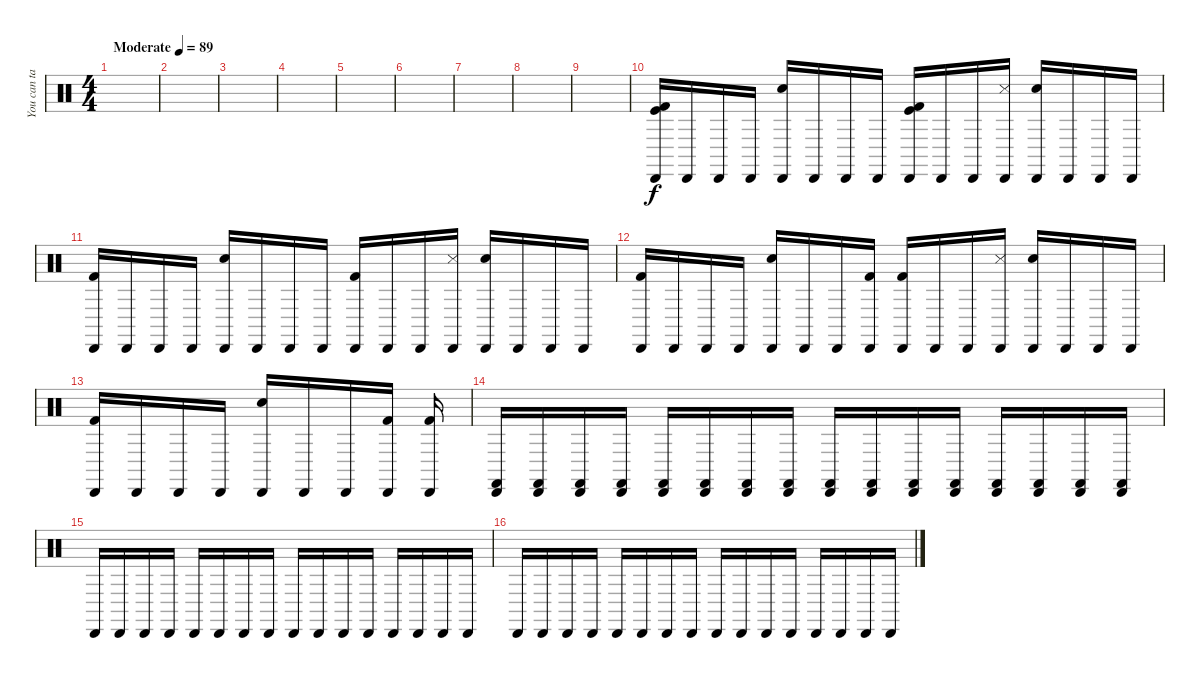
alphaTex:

\track ("You can take this file" "You can ta") {solo instrument percussion}
\staff {score}
\articulation defaults
\ts (4 4)
\tempo (89 "Moderate")
\clef neutral
\ks c
|
|
|
|
|
|
|
|
|
("Kick (hit) 2" "Kick (hit)" "Cabasa (hit)").16 "Cabasa (hit)".16 "Cabasa (hit)".16 "Cabasa (hit)".16 ("Hand Clap (hit)" "Cabasa (hit)").16 "Cabasa (hit)".16 "Cabasa (hit)".16 "Cabasa (hit)".16 ("Kick (hit) 2" "Kick (hit)" "Cabasa (hit)").16 "Cabasa (hit)".16 "Cabasa (hit)".16 ("Snare (side stick) 3" "Cabasa (hit)").16 ("Hand Clap (hit)" "Cabasa (hit)").16 "Cabasa (hit)".16 "Cabasa (hit)".16 "Cabasa (hit)".16 |
("Kick (hit) 2" "Cabasa (hit)").16 "Cabasa (hit)".16 "Cabasa (hit)".16 "Cabasa (hit)".16 ("Hand Clap (hit)" "Cabasa (hit)").16 "Cabasa (hit)".16 "Cabasa (hit)".16 "Cabasa (hit)".16 ("Kick (hit) 2" "Cabasa (hit)").16 "Cabasa (hit)".16 "Cabasa (hit)".16 ("Snare (side stick) 3" "Cabasa (hit)").16 ("Hand Clap (hit)" "Cabasa (hit)").16 "Cabasa (hit)".16 "Cabasa (hit)".16 "Cabasa (hit)".16 |
("Kick (hit) 2" "Cabasa (hit)").16 "Cabasa (hit)".16 "Cabasa (hit)".16 "Cabasa (hit)".16 ("Hand Clap (hit)" "Cabasa (hit)").16 "Cabasa (hit)".16 "Cabasa (hit)".16 ("Kick (hit) 2" "Cabasa (hit)").16 ("Kick (hit) 2" "Cabasa (hit)").16 "Cabasa (hit)".16 "Cabasa (hit)".16 ("Snare (side stick) 3" "Cabasa (hit)").16 ("Hand Clap (hit)" "Cabasa (hit)").16 "Cabasa (hit)".16 "Cabasa (hit)".16 "Cabasa (hit)".16 |
("Kick (hit) 2" "Cabasa (hit)").16 "Cabasa (hit)".16 "Cabasa (hit)".16 "Cabasa (hit)".16 ("Hand Clap (hit)" "Cabasa (hit)").16 "Cabasa (hit)".16 "Cabasa (hit)".16 ("Kick (hit) 2" "Cabasa (hit)").16 ("Kick (hit) 2" "Cabasa (hit)").16 |
("Cabasa (hit)" "Castanets (hit)").16 ("Cabasa (hit)" "Castanets (hit)").16 ("Cabasa (hit)" "Castanets (hit)").16 ("Cabasa (hit)" "Castanets (hit)").16 ("Cabasa (hit)" "Castanets (hit)").16 ("Cabasa (hit)" "Castanets (hit)").16 ("Cabasa (hit)" "Castanets (hit)").16 ("Cabasa (hit)" "Castanets (hit)").16 ("Cabasa (hit)" "Castanets (hit)").16 ("Cabasa (hit)" "Castanets (hit)").16 ("Cabasa (hit)" "Castanets (hit)").16 ("Cabasa (hit)" "Castanets (hit)").16 ("Cabasa (hit)" "Castanets (hit)").16 ("Cabasa (hit)" "Castanets (hit)").16 ("Cabasa (hit)" "Castanets (hit)").16 ("Cabasa (hit)" "Castanets (hit)").16 |
"Cabasa (hit)".16 "Cabasa (hit)".16 "Cabasa (hit)".16 "Cabasa (hit)".16 "Cabasa (hit)".16 "Cabasa (hit)".16 "Cabasa (hit)".16 "Cabasa (hit)".16 "Cabasa (hit)".16 "Cabasa (hit)".16 "Cabasa (hit)".16 "Cabasa (hit)".16 "Cabasa (hit)".16 "Cabasa (hit)".16 "Cabasa (hit)".16 "Cabasa (hit)".16 |
"Cabasa (hit)".16 "Cabasa (hit)".16 "Cabasa (hit)".16 "Cabasa (hit)".16 "Cabasa (hit)".16 "Cabasa (hit)".16 "Cabasa (hit)".16 "Cabasa (hit)".16 "Cabasa (hit)".16 "Cabasa (hit)".16 "Cabasa (hit)".16 "Cabasa (hit)".16 "Cabasa (hit)".16 "Cabasa (hit)".16 "Cabasa (hit)".16 "Cabasa (hit)".16
